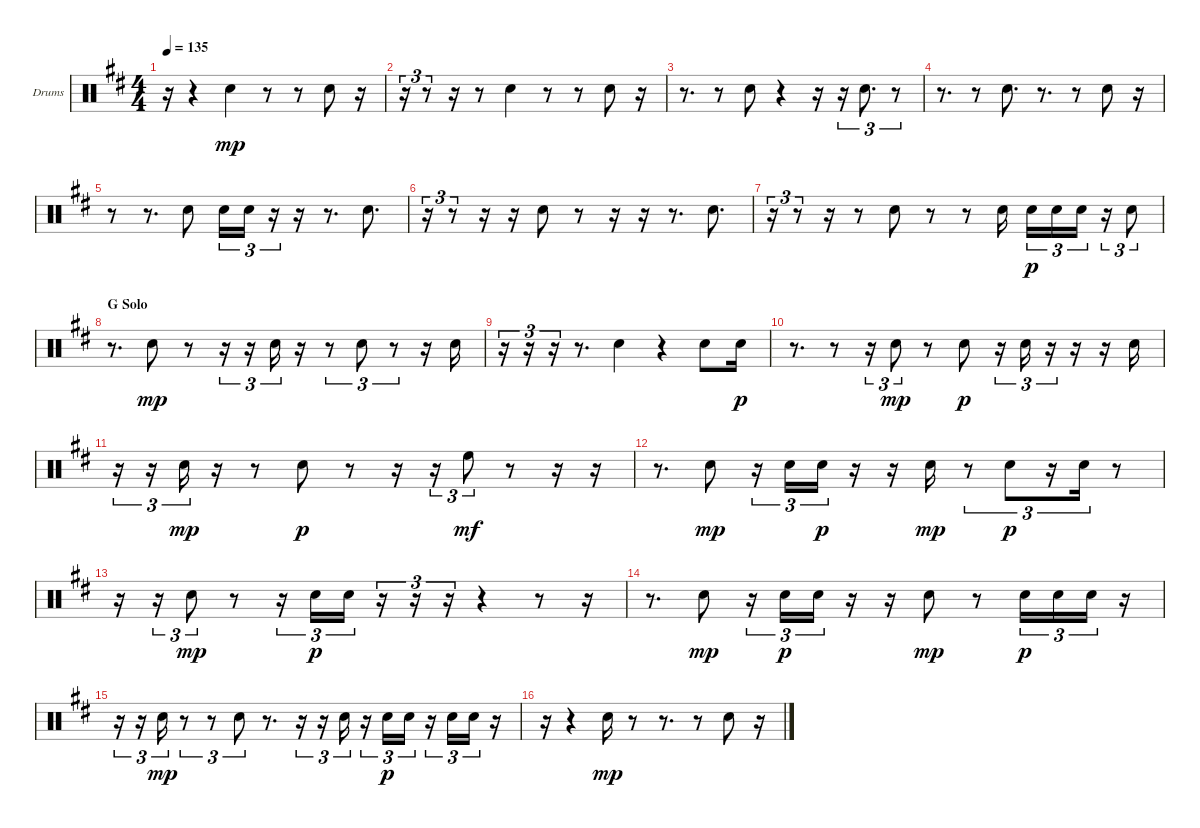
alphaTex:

\bracketExtendMode groupsimilarinstruments
\firstSystemTrackNameOrientation horizontal
\otherSystemsTrackNameOrientation horizontal
\track ("Snare" "Drums") {instrument percussion}
\staff {score}
\articulation defaults
\ts (4 4)
\tempo 135
\clef neutral
\ks d
r.16{dy p} r.4 "Snare (hit) 2".4{dy mp} r.8 r.8 "Snare (hit) 2".8 r.16 |
r.16{tu (3 2)} r.8{tu (3 2)} r.16 r.8 "Snare (hit) 2".4 r.8 r.8 "Snare (hit) 2".8 r.16 |
r.8{d} r.8 "Snare (hit) 2".8 r.4 r.16 r.16{tu (3 2)} "Snare (hit) 2".8{d tu (3 2)} r.8{tu (3 2)} |
r.8{d} r.8 "Snare (hit) 2".8{d} r.8{d} r.8 "Snare (hit) 2".8 r.16 |
r.8 r.8{d} "Snare (hit) 2".8 "Snare (hit) 2".16{tu (3 2)} "Snare (hit) 2".16{tu (3 2)} r.16{tu (3 2)} r.16 r.8{d} "Snare (hit) 2".8{d} |
r.16{tu (3 2)} r.8{tu (3 2)} r.16 r.16 "Snare (hit) 2".8 r.8 r.16 r.16 r.8{d} "Snare (hit) 2".8{d} |
r.16{tu (3 2)} r.8{tu (3 2)} r.16 r.8 "Snare (hit) 2".8 r.8 r.8 "Snare (hit) 2".16 "Snare (hit) 2".16{tu (3 2) dy p} "Snare (hit) 2".16{tu (3 2)} "Snare (hit) 2".16{tu (3 2)} r.16{tu (3 2)} "Snare (hit) 2".8{tu (3 2)} |
\section ("" "G Solo")
r.8{d} "Snare (hit) 2".8{dy mp} r.8 r.16{tu (3 2)} r.16{tu (3 2)} "Snare (hit) 2".16{tu (3 2)} r.16 r.8{tu (3 2)} "Snare (hit) 2".8{tu (3 2)} r.8{tu (3 2)} r.16 "Snare (hit) 2".16 |
r.16{tu (3 2)} r.16{tu (3 2)} r.16{tu (3 2)} r.8{d} "Snare (hit) 2".4 r.4 "Snare (hit) 2".8 "Snare (hit) 2".16{dy p} |
r.8{d} r.8 r.16{tu (3 2)} "Snare (hit) 2".8{tu (3 2) dy mp} r.8 "Snare (hit) 2".8{dy p} r.16{tu (3 2)} "Snare (hit) 2".16{tu (3 2)} r.16{tu (3 2)} r.16 r.16 "Snare (hit) 2".16 |
r.16{tu (3 2)} r.16{tu (3 2)} "Snare (hit) 2".16{tu (3 2) dy mp} r.16 r.8 "Snare (hit) 2".8{dy p} r.8 r.16 r.16{tu (3 2)} "High Floor Tom (hit)".8{tu (3 2) dy mf} r.8 r.16 r.16 |
r.8{d} "Snare (hit) 2".8{dy mp} r.16{tu (3 2)} "Snare (hit) 2".16{tu (3 2)} "Snare (hit) 2".16{tu (3 2) dy p} r.16 r.16 "Snare (hit) 2".16{dy mp} r.8{tu (3 2)} "Snare (hit) 2".8{tu (3 2) dy p} r.16{tu (3 2)} "Snare (hit) 2".16{tu (3 2)} r.8 |
r.16 r.16{tu (3 2)} "Snare (hit) 2".8{tu (3 2) dy mp} r.8 r.16{tu (3 2)} "Snare (hit) 2".16{tu (3 2) dy p} "Snare (hit) 2".16{tu (3 2)} r.16{tu (3 2)} r.16{tu (3 2)} r.16{tu (3 2)} r.4 r.8 r.16 |
r.8{d} "Snare (hit) 2".8{dy mp} r.16{tu (3 2)} "Snare (hit) 2".16{tu (3 2) dy p} "Snare (hit) 2".16{tu (3 2)} r.16 r.16 "Snare (hit) 2".8{dy mp} r.8 "Snare (hit) 2".16{tu (3 2) dy p} "Snare (hit) 2".16{tu (3 2)} "Snare (hit) 2".16{tu (3 2)} r.16 |
r.16{tu (3 2)} r.16{tu (3 2)} "Snare (hit) 2".16{tu (3 2) dy mp} r.8{tu (3 2)} r.8{tu (3 2)} "Snare (hit) 2".8{tu (3 2)} r.8{d} r.16{tu (3 2)} r.16{tu (3 2)} "Snare (hit) 2".16{tu (3 2)} r.16{tu (3 2)} "Snare (hit) 2".16{tu (3 2) dy p} "Snare (hit) 2".16{tu (3 2)} r.16{tu (3 2)} "Snare (hit) 2".16{tu (3 2)} "Snare (hit) 2".16{tu (3 2)} r.16 |
r.16 r.4 "Snare (hit) 2".16{dy mp} r.8 r.8{d} r.8 "Snare (hit) 2".8 r.16
